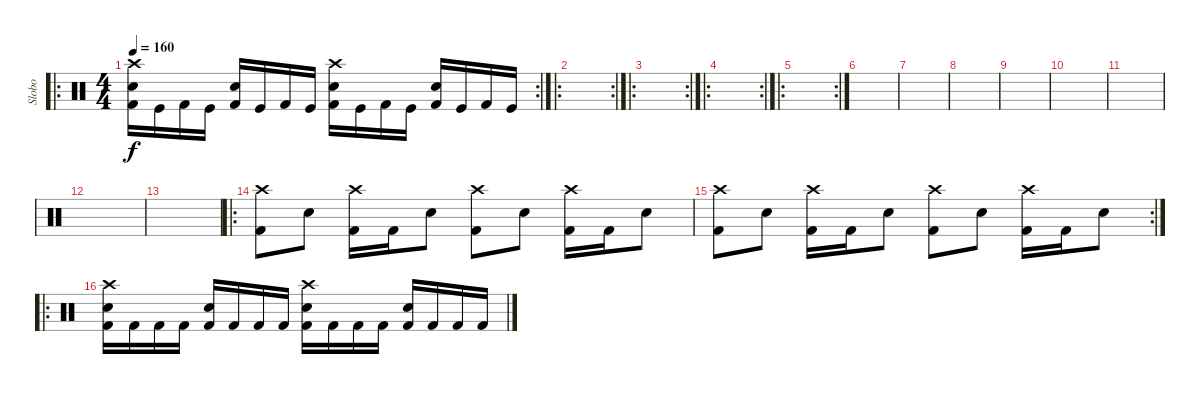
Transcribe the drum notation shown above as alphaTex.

\track ("Slobo" "Slobo") {instrument percussion}
\staff {score}
\articulation defaults
\ro
\rc 2
\ts (4 4)
\tempo 160
\clef neutral
\ks c
("Crash high (hit)" "Snare (hit) 2" "Kick (hit) 2").16{dy f} "Kick (hit)".16 "Kick (hit) 2".16 "Kick (hit)".16 ("Snare (hit) 2" "Kick (hit) 2").16 "Kick (hit)".16 "Kick (hit) 2".16 "Kick (hit)".16 ("Crash high (hit)" "Snare (hit) 2" "Kick (hit) 2").16 "Kick (hit)".16 "Kick (hit) 2".16 "Kick (hit)".16 ("Snare (hit) 2" "Kick (hit) 2").16 "Kick (hit)".16 "Kick (hit) 2".16 "Kick (hit)".16 |
\ro
\rc 2
|
\ro
\rc 2
|
\ro
\rc 2
|
\ro
\rc 2
|
|
|
|
|
|
|
|
|
\ro
("Crash high (hit)" "Kick (hit) 2").8 "Snare (hit) 2".8 ("Crash high (hit)" "Kick (hit) 2").16 "Kick (hit) 2".16 "Snare (hit) 2".8 ("Crash high (hit)" "Kick (hit) 2").8 "Snare (hit) 2".8 ("Crash high (hit)" "Kick (hit) 2").16 "Kick (hit) 2".16 "Snare (hit) 2".8 |
\rc 2
("Crash high (hit)" "Kick (hit) 2").8 "Snare (hit) 2".8 ("Crash high (hit)" "Kick (hit) 2").16 "Kick (hit) 2".16 "Snare (hit) 2".8 ("Crash high (hit)" "Kick (hit) 2").8 "Snare (hit) 2".8 ("Crash high (hit)" "Kick (hit) 2").16 "Kick (hit) 2".16 "Snare (hit) 2".8 |
\ro
("Crash high (hit)" "Snare (hit) 2" "Kick (hit) 2").16 "Kick (hit) 2".16 "Kick (hit) 2".16 "Kick (hit) 2".16 ("Snare (hit) 2" "Kick (hit) 2").16 "Kick (hit) 2".16 "Kick (hit) 2".16 "Kick (hit) 2".16 ("Crash high (hit)" "Snare (hit) 2" "Kick (hit) 2").16 "Kick (hit) 2".16 "Kick (hit) 2".16 "Kick (hit) 2".16 ("Snare (hit) 2" "Kick (hit) 2").16 "Kick (hit) 2".16 "Kick (hit) 2".16 "Kick (hit) 2".16
